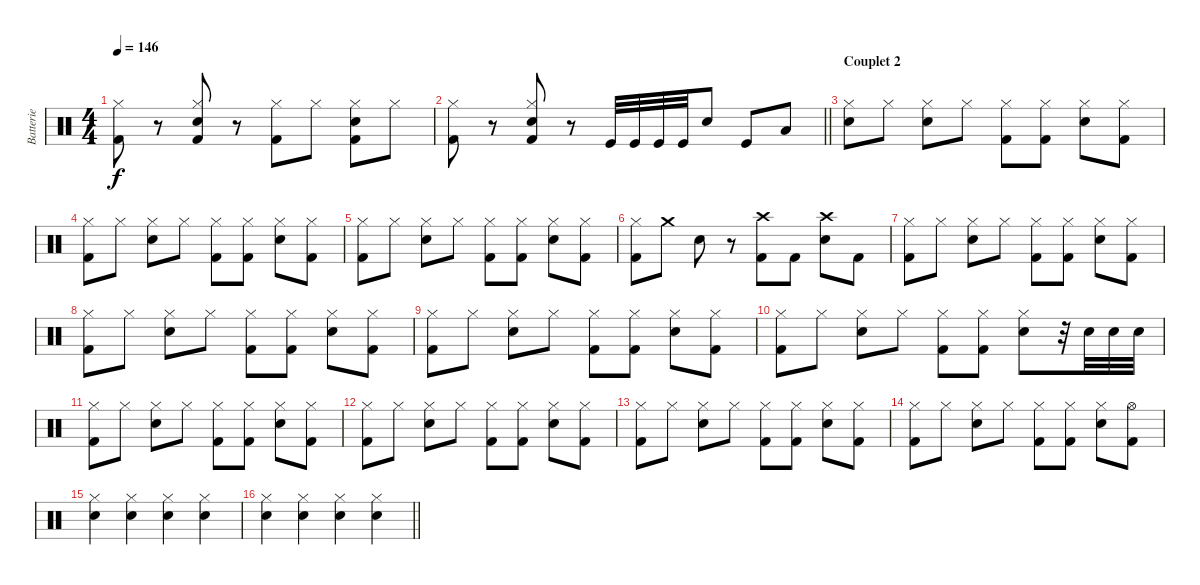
\track ("Batterie" "Batterie") {instrument percussion}
\staff {score}
\articulation defaults
\ts (4 4)
\tempo 146
\clef neutral
\ks c
("Kick (hit) 2" "Hi-Hat (closed)").8{dy f} r.8 ("Kick (hit) 2" "Snare (hit) 2" "Hi-Hat (closed)").8 r.8 ("Kick (hit) 2" "Hi-Hat (closed)").8 "Hi-Hat (closed)".8 ("Kick (hit) 2" "Snare (hit) 2" "Hi-Hat (closed)").8 "Hi-Hat (closed)".8 |
\barLineRight lightlight
("Kick (hit) 2" "Hi-Hat (closed)").8 r.8 ("Kick (hit) 2" "Snare (hit) 2" "Hi-Hat (closed)").8 r.8 "Kick (hit)".32 "Kick (hit)".32 "Kick (hit)".32 "Kick (hit)".32 "Snare (hit) 2".8 "Kick (hit)".8 "Low Tom (hit)".8 |
\section ("" "Couplet 2")
("Snare (hit) 2" "Hi-Hat (closed)").8 "Hi-Hat (closed)".8 ("Snare (hit) 2" "Hi-Hat (closed)").8 "Hi-Hat (closed)".8 ("Kick (hit) 2" "Hi-Hat (closed)").8 ("Kick (hit) 2" "Hi-Hat (closed)").8 ("Snare (hit) 2" "Hi-Hat (closed)").8 ("Kick (hit) 2" "Hi-Hat (closed)").8 |
("Kick (hit) 2" "Hi-Hat (closed)").8 "Hi-Hat (closed)".8 ("Snare (hit) 2" "Hi-Hat (closed)").8 "Hi-Hat (closed)".8 ("Kick (hit) 2" "Hi-Hat (closed)").8 ("Kick (hit) 2" "Hi-Hat (closed)").8 ("Snare (hit) 2" "Hi-Hat (closed)").8 ("Kick (hit) 2" "Hi-Hat (closed)").8 |
("Kick (hit) 2" "Hi-Hat (closed)").8 "Hi-Hat (closed)".8 ("Snare (hit) 2" "Hi-Hat (closed)").8 "Hi-Hat (closed)".8 ("Kick (hit) 2" "Hi-Hat (closed)").8 ("Kick (hit) 2" "Hi-Hat (closed)").8 ("Snare (hit) 2" "Hi-Hat (closed)").8 ("Kick (hit) 2" "Hi-Hat (closed)").8 |
("Kick (hit) 2" "Hi-Hat (closed)").8 "Crash medium (hit)".8 "Snare (hit) 2".8 r.8 ("Kick (hit) 2" "Crash high (hit)").8 "Kick (hit) 2".8 ("Snare (hit) 2" "Crash high (hit)").8 "Kick (hit) 2".8 |
("Kick (hit) 2" "Hi-Hat (closed)").8 "Hi-Hat (closed)".8 ("Snare (hit) 2" "Hi-Hat (closed)").8 "Hi-Hat (closed)".8 ("Kick (hit) 2" "Hi-Hat (closed)").8 ("Kick (hit) 2" "Hi-Hat (closed)").8 ("Snare (hit) 2" "Hi-Hat (closed)").8 ("Kick (hit) 2" "Hi-Hat (closed)").8 |
("Kick (hit) 2" "Hi-Hat (closed)").8 "Hi-Hat (closed)".8 ("Snare (hit) 2" "Hi-Hat (closed)").8 "Hi-Hat (closed)".8 ("Kick (hit) 2" "Hi-Hat (closed)").8 ("Kick (hit) 2" "Hi-Hat (closed)").8 ("Snare (hit) 2" "Hi-Hat (closed)").8 ("Kick (hit) 2" "Hi-Hat (closed)").8 |
("Kick (hit) 2" "Hi-Hat (closed)").8 "Hi-Hat (closed)".8 ("Snare (hit) 2" "Hi-Hat (closed)").8 "Hi-Hat (closed)".8 ("Kick (hit) 2" "Hi-Hat (closed)").8 ("Kick (hit) 2" "Hi-Hat (closed)").8 ("Snare (hit) 2" "Hi-Hat (closed)").8 ("Kick (hit) 2" "Hi-Hat (closed)").8 |
("Kick (hit) 2" "Hi-Hat (closed)").8 "Hi-Hat (closed)".8 ("Snare (hit) 2" "Hi-Hat (closed)").8 "Hi-Hat (closed)".8 ("Kick (hit) 2" "Hi-Hat (closed)").8 ("Kick (hit) 2" "Hi-Hat (closed)").8 ("Snare (hit) 2" "Hi-Hat (closed)").8 r.32 "Electric Snare (hit)".32 "Electric Snare (hit)".32 "Electric Snare (hit)".32 |
("Kick (hit) 2" "Hi-Hat (closed)").8 "Hi-Hat (closed)".8 ("Snare (hit) 2" "Hi-Hat (closed)").8 "Hi-Hat (closed)".8 ("Kick (hit) 2" "Hi-Hat (closed)").8 ("Kick (hit) 2" "Hi-Hat (closed)").8 ("Snare (hit) 2" "Hi-Hat (closed)").8 ("Kick (hit) 2" "Hi-Hat (closed)").8 |
("Kick (hit) 2" "Hi-Hat (closed)").8 "Hi-Hat (closed)".8 ("Snare (hit) 2" "Hi-Hat (closed)").8 "Hi-Hat (closed)".8 ("Kick (hit) 2" "Hi-Hat (closed)").8 ("Kick (hit) 2" "Hi-Hat (closed)").8 ("Snare (hit) 2" "Hi-Hat (closed)").8 ("Kick (hit) 2" "Hi-Hat (closed)").8 |
("Kick (hit) 2" "Hi-Hat (closed)").8 "Hi-Hat (closed)".8 ("Snare (hit) 2" "Hi-Hat (closed)").8 "Hi-Hat (closed)".8 ("Kick (hit) 2" "Hi-Hat (closed)").8 ("Kick (hit) 2" "Hi-Hat (closed)").8 ("Snare (hit) 2" "Hi-Hat (closed)").8 ("Kick (hit) 2" "Hi-Hat (closed)").8 |
("Kick (hit) 2" "Hi-Hat (closed)").8 "Hi-Hat (closed)".8 ("Snare (hit) 2" "Hi-Hat (closed)").8 "Hi-Hat (closed)".8 ("Kick (hit) 2" "Hi-Hat (closed)").8 ("Kick (hit) 2" "Hi-Hat (closed)").8 ("Snare (hit) 2" "Hi-Hat (closed)").8 ("Kick (hit) 2" "Hi-Hat (open)").8 |
("Snare (hit) 2" "Hi-Hat (closed)").4 ("Snare (hit) 2" "Hi-Hat (closed)").4 ("Snare (hit) 2" "Hi-Hat (closed)").4 ("Snare (hit) 2" "Hi-Hat (closed)").4 |
\barLineRight lightlight
("Snare (hit) 2" "Hi-Hat (closed)").4 ("Snare (hit) 2" "Hi-Hat (closed)").4 ("Snare (hit) 2" "Hi-Hat (closed)").4 ("Snare (hit) 2" "Hi-Hat (closed)").4
